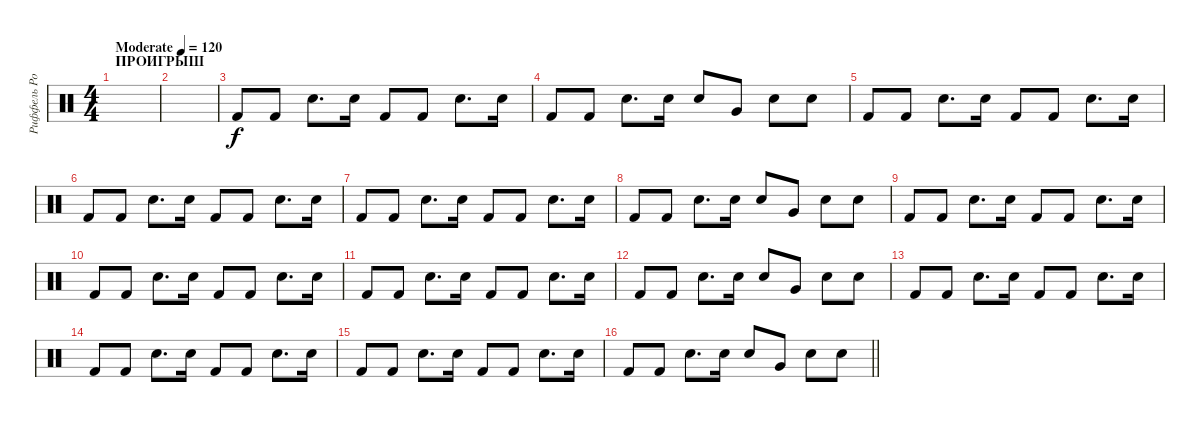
\track ("Риффель Роман (главные)" "Риффель Ро") {instrument percussion}
\staff {score}
\articulation defaults
\ts (4 4)
\section ("" "ПРОИГРЫШ")
\tempo (120 "Moderate")
\clef neutral
\ks c
|
|
"Kick (hit) 2".8 "Kick (hit) 2".8 "Electric Snare (hit)".8{d} "Electric Snare (hit)".16 "Kick (hit) 2".8 "Kick (hit) 2".8 "Electric Snare (hit)".8{d} "Electric Snare (hit)".16 |
"Kick (hit) 2".8 "Kick (hit) 2".8 "Electric Snare (hit)".8{d} "Electric Snare (hit)".16 "Electric Snare (hit)".8 "Very Low Tom (hit)".8 "Electric Snare (hit)".8 "Electric Snare (hit)".8 |
"Kick (hit) 2".8 "Kick (hit) 2".8 "Electric Snare (hit)".8{d} "Electric Snare (hit)".16 "Kick (hit) 2".8 "Kick (hit) 2".8 "Electric Snare (hit)".8{d} "Electric Snare (hit)".16 |
"Kick (hit) 2".8 "Kick (hit) 2".8 "Electric Snare (hit)".8{d} "Electric Snare (hit)".16 "Kick (hit) 2".8 "Kick (hit) 2".8 "Electric Snare (hit)".8{d} "Electric Snare (hit)".16 |
"Kick (hit) 2".8 "Kick (hit) 2".8 "Electric Snare (hit)".8{d} "Electric Snare (hit)".16 "Kick (hit) 2".8 "Kick (hit) 2".8 "Electric Snare (hit)".8{d} "Electric Snare (hit)".16 |
"Kick (hit) 2".8 "Kick (hit) 2".8 "Electric Snare (hit)".8{d} "Electric Snare (hit)".16 "Electric Snare (hit)".8 "Very Low Tom (hit)".8 "Electric Snare (hit)".8 "Electric Snare (hit)".8 |
"Kick (hit) 2".8 "Kick (hit) 2".8 "Electric Snare (hit)".8{d} "Electric Snare (hit)".16 "Kick (hit) 2".8 "Kick (hit) 2".8 "Electric Snare (hit)".8{d} "Electric Snare (hit)".16 |
"Kick (hit) 2".8 "Kick (hit) 2".8 "Electric Snare (hit)".8{d} "Electric Snare (hit)".16 "Kick (hit) 2".8 "Kick (hit) 2".8 "Electric Snare (hit)".8{d} "Electric Snare (hit)".16 |
"Kick (hit) 2".8 "Kick (hit) 2".8 "Electric Snare (hit)".8{d} "Electric Snare (hit)".16 "Kick (hit) 2".8 "Kick (hit) 2".8 "Electric Snare (hit)".8{d} "Electric Snare (hit)".16 |
"Kick (hit) 2".8 "Kick (hit) 2".8 "Electric Snare (hit)".8{d} "Electric Snare (hit)".16 "Electric Snare (hit)".8 "Very Low Tom (hit)".8 "Electric Snare (hit)".8 "Electric Snare (hit)".8 |
"Kick (hit) 2".8 "Kick (hit) 2".8 "Electric Snare (hit)".8{d} "Electric Snare (hit)".16 "Kick (hit) 2".8 "Kick (hit) 2".8 "Electric Snare (hit)".8{d} "Electric Snare (hit)".16 |
"Kick (hit) 2".8 "Kick (hit) 2".8 "Electric Snare (hit)".8{d} "Electric Snare (hit)".16 "Kick (hit) 2".8 "Kick (hit) 2".8 "Electric Snare (hit)".8{d} "Electric Snare (hit)".16 |
"Kick (hit) 2".8 "Kick (hit) 2".8 "Electric Snare (hit)".8{d} "Electric Snare (hit)".16 "Kick (hit) 2".8 "Kick (hit) 2".8 "Electric Snare (hit)".8{d} "Electric Snare (hit)".16 |
\barLineRight lightlight "Kick (hit) 2".8 "Kick (hit) 2".8 "Electric Snare (hit)".8{d} "Electric Snare (hit)".16 "Electric Snare (hit)".8 "Very Low Tom (hit)".8 "Electric Snare (hit)".8 "Electric Snare (hit)".8
